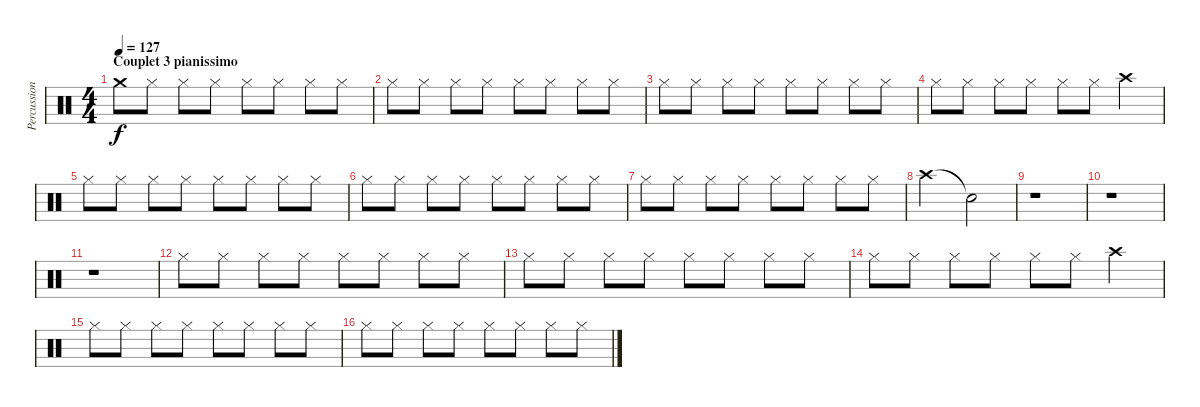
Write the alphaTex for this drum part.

\track ("Percussions" "Percussion") {instrument percussion}
\staff {score}
\articulation defaults
\ts (4 4)
\section ("" "Couplet 3 pianissimo")
\tempo 127
\clef neutral
\ks c "Crash medium (hit)".8{dy f} "Hi-Hat (closed)".8 "Hi-Hat (closed)".8 "Hi-Hat (closed)".8 "Hi-Hat (closed)".8 "Hi-Hat (closed)".8 "Hi-Hat (closed)".8 "Hi-Hat (closed)".8
|
"Hi-Hat (closed)".8 "Hi-Hat (closed)".8 "Hi-Hat (closed)".8 "Hi-Hat (closed)".8 "Hi-Hat (closed)".8 "Hi-Hat (closed)".8 "Hi-Hat (closed)".8 "Hi-Hat (closed)".8 |
"Hi-Hat (closed)".8 "Hi-Hat (closed)".8 "Hi-Hat (closed)".8 "Hi-Hat (closed)".8 "Hi-Hat (closed)".8 "Hi-Hat (closed)".8 "Hi-Hat (closed)".8 "Hi-Hat (closed)".8 |
"Hi-Hat (closed)".8 "Hi-Hat (closed)".8 "Hi-Hat (closed)".8 "Hi-Hat (closed)".8 "Hi-Hat (closed)".8 "Hi-Hat (closed)".8 "Crash high (hit)".4 |
"Hi-Hat (closed)".8 "Hi-Hat (closed)".8 "Hi-Hat (closed)".8 "Hi-Hat (closed)".8 "Hi-Hat (closed)".8 "Hi-Hat (closed)".8 "Hi-Hat (closed)".8 "Hi-Hat (closed)".8 |
"Hi-Hat (closed)".8 "Hi-Hat (closed)".8 "Hi-Hat (closed)".8 "Hi-Hat (closed)".8 "Hi-Hat (closed)".8 "Hi-Hat (closed)".8 "Hi-Hat (closed)".8 "Hi-Hat (closed)".8 |
"Hi-Hat (closed)".8 "Hi-Hat (closed)".8 "Hi-Hat (closed)".8 "Hi-Hat (closed)".8 "Hi-Hat (closed)".8 "Hi-Hat (closed)".8 "Hi-Hat (closed)".8 "Hi-Hat (closed)".8 |
"Crash high (hit)".2 "Snare (hit)"{t}.2 |
r.1 |
r.1 |
r.1 |
"Hi-Hat (closed)".8 "Hi-Hat (closed)".8 "Hi-Hat (closed)".8 "Hi-Hat (closed)".8 "Hi-Hat (closed)".8 "Hi-Hat (closed)".8 "Hi-Hat (closed)".8 "Hi-Hat (closed)".8 |
"Hi-Hat (closed)".8 "Hi-Hat (closed)".8 "Hi-Hat (closed)".8 "Hi-Hat (closed)".8 "Hi-Hat (closed)".8 "Hi-Hat (closed)".8 "Hi-Hat (closed)".8 "Hi-Hat (closed)".8 |
"Hi-Hat (closed)".8 "Hi-Hat (closed)".8 "Hi-Hat (closed)".8 "Hi-Hat (closed)".8 "Hi-Hat (closed)".8 "Hi-Hat (closed)".8 "Crash high (hit)".4 |
"Hi-Hat (closed)".8 "Hi-Hat (closed)".8 "Hi-Hat (closed)".8 "Hi-Hat (closed)".8 "Hi-Hat (closed)".8 "Hi-Hat (closed)".8 "Hi-Hat (closed)".8 "Hi-Hat (closed)".8 |
"Hi-Hat (closed)".8 "Hi-Hat (closed)".8 "Hi-Hat (closed)".8 "Hi-Hat (closed)".8 "Hi-Hat (closed)".8 "Hi-Hat (closed)".8 "Hi-Hat (closed)".8 "Hi-Hat (closed)".8
